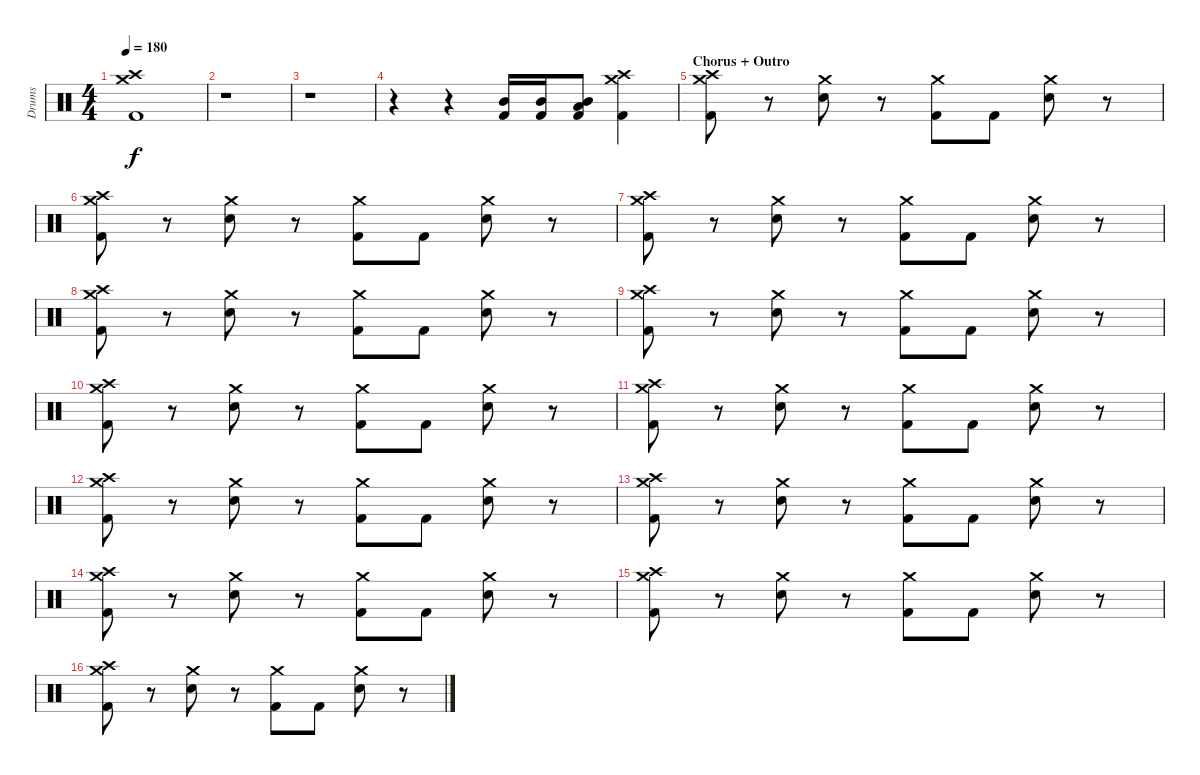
\track ("Drums" "Drums") {instrument percussion}
\staff {score}
\articulation defaults
\ts (4 4)
\tempo 180
\clef neutral
\ks c
("Crash high (hit)" "Crash medium (hit)" "Kick (hit) 2").1{dy f} |
r.1 |
r.1 |
r.4 r.4 ("Mid Tom (hit)" "Kick (hit) 2").16 ("Mid Tom (hit)" "Kick (hit) 2").16 ("Mid Tom (hit)" "Low Tom (hit)" "Kick (hit) 2").8 ("Crash high (hit)" "Crash medium (hit)" "Kick (hit) 2").4 |
\section ("" "Chorus + Outro")
("Crash medium (hit)" "Crash high (hit)" "Kick (hit) 2").8 r.8 ("Crash medium (hit)" "Snare (hit) 2").8 r.8 ("Crash medium (hit)" "Kick (hit) 2").8 "Kick (hit) 2".8 ("Crash medium (hit)" "Snare (hit) 2").8 r.8 |
("Crash medium (hit)" "Crash high (hit)" "Kick (hit) 2").8 r.8 ("Crash medium (hit)" "Snare (hit) 2").8 r.8 ("Crash medium (hit)" "Kick (hit) 2").8 "Kick (hit) 2".8 ("Crash medium (hit)" "Snare (hit) 2").8 r.8 |
("Crash medium (hit)" "Crash high (hit)" "Kick (hit) 2").8 r.8 ("Crash medium (hit)" "Snare (hit) 2").8 r.8 ("Crash medium (hit)" "Kick (hit) 2").8 "Kick (hit) 2".8 ("Crash medium (hit)" "Snare (hit) 2").8 r.8 |
("Crash medium (hit)" "Crash high (hit)" "Kick (hit) 2").8 r.8 ("Crash medium (hit)" "Snare (hit) 2").8 r.8 ("Crash medium (hit)" "Kick (hit) 2").8 "Kick (hit) 2".8 ("Crash medium (hit)" "Snare (hit) 2").8 r.8 |
("Crash medium (hit)" "Crash high (hit)" "Kick (hit) 2").8 r.8 ("Crash medium (hit)" "Snare (hit) 2").8 r.8 ("Crash medium (hit)" "Kick (hit) 2").8 "Kick (hit) 2".8 ("Crash medium (hit)" "Snare (hit) 2").8 r.8 |
("Crash medium (hit)" "Crash high (hit)" "Kick (hit) 2").8 r.8 ("Crash medium (hit)" "Snare (hit) 2").8 r.8 ("Crash medium (hit)" "Kick (hit) 2").8 "Kick (hit) 2".8 ("Crash medium (hit)" "Snare (hit) 2").8 r.8 |
("Crash medium (hit)" "Crash high (hit)" "Kick (hit) 2").8 r.8 ("Crash medium (hit)" "Snare (hit) 2").8 r.8 ("Crash medium (hit)" "Kick (hit) 2").8 "Kick (hit) 2".8 ("Crash medium (hit)" "Snare (hit) 2").8 r.8 |
("Crash medium (hit)" "Crash high (hit)" "Kick (hit) 2").8 r.8 ("Crash medium (hit)" "Snare (hit) 2").8 r.8 ("Crash medium (hit)" "Kick (hit) 2").8 "Kick (hit) 2".8 ("Crash medium (hit)" "Snare (hit) 2").8 r.8 |
("Crash medium (hit)" "Crash high (hit)" "Kick (hit) 2").8 r.8 ("Crash medium (hit)" "Snare (hit) 2").8 r.8 ("Crash medium (hit)" "Kick (hit) 2").8 "Kick (hit) 2".8 ("Crash medium (hit)" "Snare (hit) 2").8 r.8 |
("Crash medium (hit)" "Crash high (hit)" "Kick (hit) 2").8 r.8 ("Crash medium (hit)" "Snare (hit) 2").8 r.8 ("Crash medium (hit)" "Kick (hit) 2").8 "Kick (hit) 2".8 ("Crash medium (hit)" "Snare (hit) 2").8 r.8 |
("Crash medium (hit)" "Crash high (hit)" "Kick (hit) 2").8 r.8 ("Crash medium (hit)" "Snare (hit) 2").8 r.8 ("Crash medium (hit)" "Kick (hit) 2").8 "Kick (hit) 2".8 ("Crash medium (hit)" "Snare (hit) 2").8 r.8 |
("Crash medium (hit)" "Crash high (hit)" "Kick (hit) 2").8 r.8 ("Crash medium (hit)" "Snare (hit) 2").8 r.8 ("Crash medium (hit)" "Kick (hit) 2").8 "Kick (hit) 2".8 ("Crash medium (hit)" "Snare (hit) 2").8 r.8
